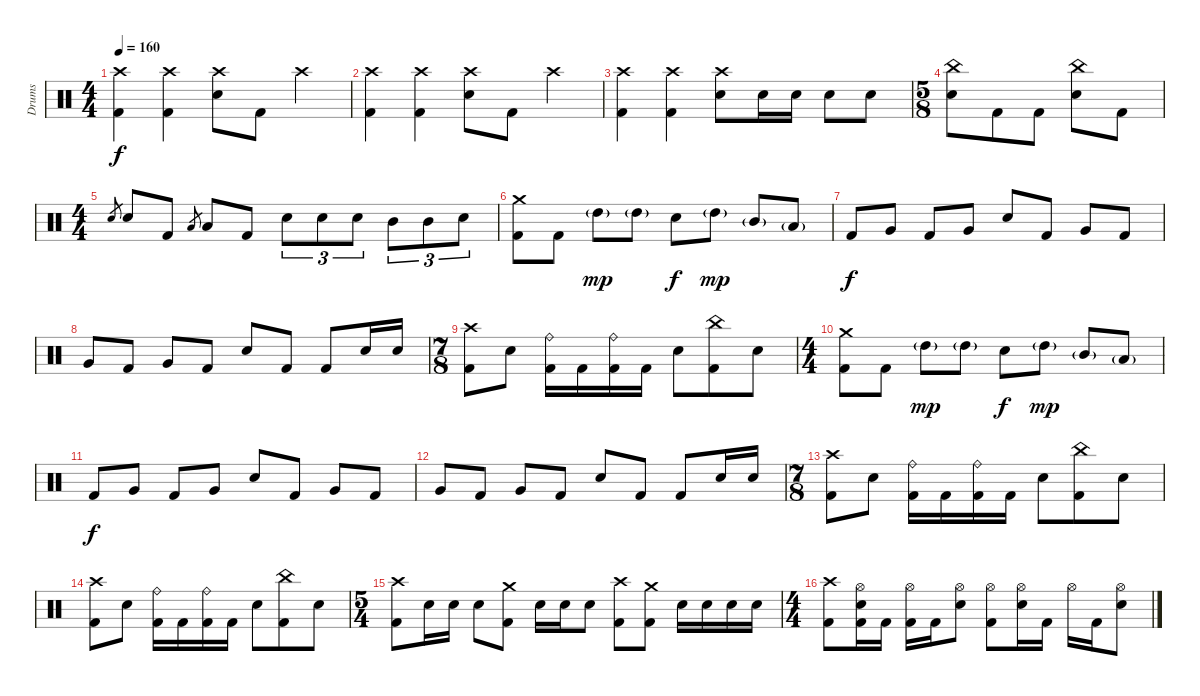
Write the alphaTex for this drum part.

\track ("Drums" "Drums") {instrument percussion}
\staff {score}
\articulation defaults
\ts (4 4)
\tempo 160
\clef neutral
\ks c
("Crash high (hit)" "Kick (hit) 2").4{dy f} ("Crash high (hit)" "Kick (hit) 2").4 ("Crash high (hit)" "Electric Snare (hit)").8 "Kick (hit) 2".8 "Crash high (hit)".4 |
("Crash high (hit)" "Kick (hit) 2").4 ("Crash high (hit)" "Kick (hit) 2").4 ("Crash high (hit)" "Electric Snare (hit)").8 "Kick (hit) 2".8 "Crash high (hit)".4 |
("Crash high (hit)" "Kick (hit) 2").4 ("Crash high (hit)" "Kick (hit) 2").4 ("Crash high (hit)" "Electric Snare (hit)").8 "Electric Snare (hit)".16 "Electric Snare (hit)".16 "Electric Snare (hit)".8 "Electric Snare (hit)".8 |
\ts (5 8)
("China (hit)" "Electric Snare (hit)").8 "Kick (hit) 2".8 "Kick (hit) 2".8 ("China (hit)" "Electric Snare (hit)").8 "Kick (hit) 2".8 |
\ts (4 4)
"Electric Snare (hit)".8{gr} "Electric Snare (hit)".8 "Kick (hit) 2".8 "Low Tom (hit)".8{gr} "Low Tom (hit)".8 "Kick (hit) 2".8 "Electric Snare (hit)".8{tu (3 2)} "Electric Snare (hit)".8{tu (3 2)} "Electric Snare (hit)".8{tu (3 2)} "Mid Tom (hit)".8{tu (3 2)} "Mid Tom (hit)".8{tu (3 2)} "Electric Snare (hit)".8{tu (3 2)} |
("Crash medium (hit)" "Kick (hit) 2").8 "Kick (hit) 2".8 "High Tom (hit)"{g}.8{dy mp} "High Tom (hit)"{g}.8 "Electric Snare (hit)".8{dy f} "High Tom (hit)"{g}.8{dy mp} "Mid Tom (hit)"{g}.8 "Low Tom (hit)"{g}.8 |
"Kick (hit) 2".8{dy f} "Very Low Tom (hit)".8 "Kick (hit) 2".8 "Very Low Tom (hit)".8 "Electric Snare (hit)".8 "Kick (hit) 2".8 "Very Low Tom (hit)".8 "Kick (hit) 2".8 |
"Very Low Tom (hit)".8 "Kick (hit) 2".8 "Very Low Tom (hit)".8 "Kick (hit) 2".8 "Electric Snare (hit)".8 "Kick (hit) 2".8 "Kick (hit) 2".8 "Electric Snare (hit)".16 "Electric Snare (hit)".16 |
\ts (7 8)
("Crash high (hit)" "Kick (hit) 2").8{beam merge} "Electric Snare (hit)".8{beam split} ("Ride (bell)" "Kick (hit) 2").16 "Kick (hit) 2".16{beam merge} ("Ride (bell)" "Kick (hit) 2").16 "Kick (hit) 2".16{beam split} "Electric Snare (hit)".8{beam merge} ("China (hit)" "Kick (hit) 2").8 "Electric Snare (hit)".8 |
\ts (4 4)
("Crash medium (hit)" "Kick (hit) 2").8 "Kick (hit) 2".8 "High Tom (hit)"{g}.8{dy mp} "High Tom (hit)"{g}.8 "Electric Snare (hit)".8{dy f} "High Tom (hit)"{g}.8{dy mp} "Mid Tom (hit)"{g}.8 "Low Tom (hit)"{g}.8 |
"Kick (hit) 2".8{dy f} "Very Low Tom (hit)".8 "Kick (hit) 2".8 "Very Low Tom (hit)".8 "Electric Snare (hit)".8 "Kick (hit) 2".8 "Very Low Tom (hit)".8 "Kick (hit) 2".8 |
"Very Low Tom (hit)".8 "Kick (hit) 2".8 "Very Low Tom (hit)".8 "Kick (hit) 2".8 "Electric Snare (hit)".8 "Kick (hit) 2".8 "Kick (hit) 2".8 "Electric Snare (hit)".16 "Electric Snare (hit)".16 |
\ts (7 8)
("Crash high (hit)" "Kick (hit) 2").8{beam merge} "Electric Snare (hit)".8{beam split} ("Ride (bell)" "Kick (hit) 2").16 "Kick (hit) 2".16{beam merge} ("Ride (bell)" "Kick (hit) 2").16 "Kick (hit) 2".16{beam split} "Electric Snare (hit)".8{beam merge} ("China (hit)" "Kick (hit) 2").8 "Electric Snare (hit)".8 |
("Crash high (hit)" "Kick (hit) 2").8{beam merge} "Electric Snare (hit)".8{beam split} ("Ride (bell)" "Kick (hit) 2").16 "Kick (hit) 2".16{beam merge} ("Ride (bell)" "Kick (hit) 2").16 "Kick (hit) 2".16{beam split} "Electric Snare (hit)".8{beam merge} ("China (hit)" "Kick (hit) 2").8 "Electric Snare (hit)".8 |
\ts (5 4)
("Crash high (hit)" "Kick (hit) 2").8 "Electric Snare (hit)".16 "Electric Snare (hit)".16 "Electric Snare (hit)".8 ("Crash medium (hit)" "Kick (hit) 2").8 "Electric Snare (hit)".16 "Electric Snare (hit)".16 "Electric Snare (hit)".8 ("Crash high (hit)" "Kick (hit) 2").8 ("Crash medium (hit)" "Kick (hit) 2").8 "Electric Snare (hit)".16 "Electric Snare (hit)".16 "Electric Snare (hit)".16 "Electric Snare (hit)".16 |
\ts (4 4)
("Crash high (hit)" "Kick (hit) 2").8 ("Hi-Hat (open)" "Electric Snare (hit)" "Kick (hit) 2").16 "Kick (hit) 2".16 ("Hi-Hat (open)" "Kick (hit) 2").16 "Kick (hit) 2".16 ("Hi-Hat (open)" "Electric Snare (hit)").8 ("Hi-Hat (open)" "Kick (hit) 2").8 ("Hi-Hat (open)" "Electric Snare (hit)").16 "Kick (hit) 2".16 "Hi-Hat (open)".16 "Kick (hit) 2".16 ("Hi-Hat (open)" "Electric Snare (hit)").8
